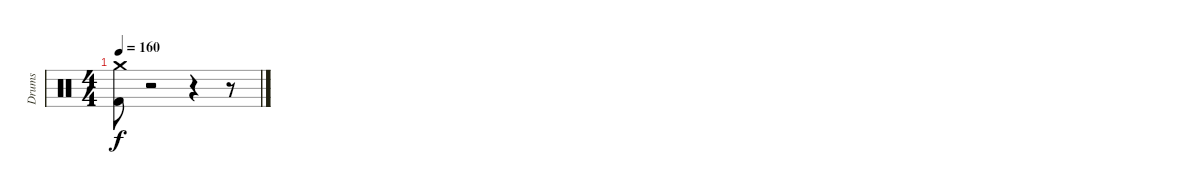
\track ("Drums" "Drums") {instrument percussion}
\staff {score}
\articulation defaults
\ts (4 4)
\tempo 160
\clef neutral
\ks c
("Crash medium (hit)" "Kick (hit) 2").8{dy f} r.2 r.4 r.8
